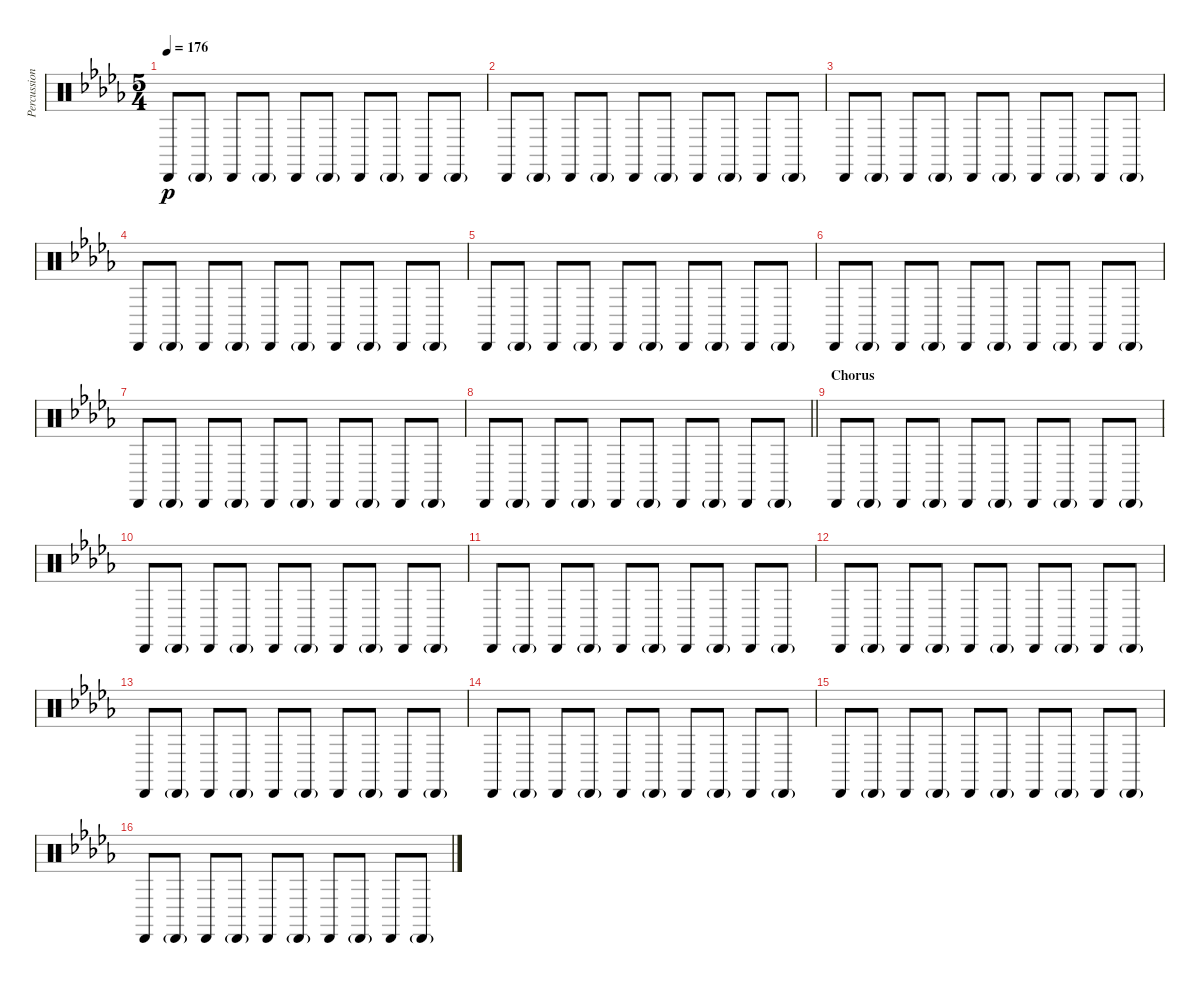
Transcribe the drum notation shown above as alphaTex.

\track ("Percussion" "Percussion") {instrument percussion}
\staff {score}
\articulation defaults
\ts (5 4)
\tempo 176
\clef neutral
\ks db "Cabasa (hit)".8{dy p} "Cabasa (hit)"{g}.8 "Cabasa (hit)".8 "Cabasa (hit)"{g}.8 "Cabasa (hit)".8 "Cabasa (hit)"{g}.8 "Cabasa (hit)".8 "Cabasa (hit)"{g}.8 "Cabasa (hit)".8 "Cabasa (hit)"{g}.8
|
"Cabasa (hit)".8 "Cabasa (hit)"{g}.8 "Cabasa (hit)".8 "Cabasa (hit)"{g}.8 "Cabasa (hit)".8 "Cabasa (hit)"{g}.8 "Cabasa (hit)".8 "Cabasa (hit)"{g}.8 "Cabasa (hit)".8 "Cabasa (hit)"{g}.8 |
"Cabasa (hit)".8 "Cabasa (hit)"{g}.8 "Cabasa (hit)".8 "Cabasa (hit)"{g}.8 "Cabasa (hit)".8 "Cabasa (hit)"{g}.8 "Cabasa (hit)".8 "Cabasa (hit)"{g}.8 "Cabasa (hit)".8 "Cabasa (hit)"{g}.8 |
"Cabasa (hit)".8 "Cabasa (hit)"{g}.8 "Cabasa (hit)".8 "Cabasa (hit)"{g}.8 "Cabasa (hit)".8 "Cabasa (hit)"{g}.8 "Cabasa (hit)".8 "Cabasa (hit)"{g}.8 "Cabasa (hit)".8 "Cabasa (hit)"{g}.8 |
"Cabasa (hit)".8 "Cabasa (hit)"{g}.8 "Cabasa (hit)".8 "Cabasa (hit)"{g}.8 "Cabasa (hit)".8 "Cabasa (hit)"{g}.8 "Cabasa (hit)".8 "Cabasa (hit)"{g}.8 "Cabasa (hit)".8 "Cabasa (hit)"{g}.8 |
"Cabasa (hit)".8 "Cabasa (hit)"{g}.8 "Cabasa (hit)".8 "Cabasa (hit)"{g}.8 "Cabasa (hit)".8 "Cabasa (hit)"{g}.8 "Cabasa (hit)".8 "Cabasa (hit)"{g}.8 "Cabasa (hit)".8 "Cabasa (hit)"{g}.8 |
"Cabasa (hit)".8 "Cabasa (hit)"{g}.8 "Cabasa (hit)".8 "Cabasa (hit)"{g}.8 "Cabasa (hit)".8 "Cabasa (hit)"{g}.8 "Cabasa (hit)".8 "Cabasa (hit)"{g}.8 "Cabasa (hit)".8 "Cabasa (hit)"{g}.8 |
\barLineRight lightlight "Cabasa (hit)".8 "Cabasa (hit)"{g}.8 "Cabasa (hit)".8 "Cabasa (hit)"{g}.8 "Cabasa (hit)".8 "Cabasa (hit)"{g}.8 "Cabasa (hit)".8 "Cabasa (hit)"{g}.8 "Cabasa (hit)".8 "Cabasa (hit)"{g}.8
|
\section ("" "Chorus")
"Cabasa (hit)".8 "Cabasa (hit)"{g}.8 "Cabasa (hit)".8 "Cabasa (hit)"{g}.8 "Cabasa (hit)".8 "Cabasa (hit)"{g}.8 "Cabasa (hit)".8 "Cabasa (hit)"{g}.8 "Cabasa (hit)".8 "Cabasa (hit)"{g}.8 |
"Cabasa (hit)".8 "Cabasa (hit)"{g}.8 "Cabasa (hit)".8 "Cabasa (hit)"{g}.8 "Cabasa (hit)".8 "Cabasa (hit)"{g}.8 "Cabasa (hit)".8 "Cabasa (hit)"{g}.8 "Cabasa (hit)".8 "Cabasa (hit)"{g}.8 |
"Cabasa (hit)".8 "Cabasa (hit)"{g}.8 "Cabasa (hit)".8 "Cabasa (hit)"{g}.8 "Cabasa (hit)".8 "Cabasa (hit)"{g}.8 "Cabasa (hit)".8 "Cabasa (hit)"{g}.8 "Cabasa (hit)".8 "Cabasa (hit)"{g}.8 |
"Cabasa (hit)".8 "Cabasa (hit)"{g}.8 "Cabasa (hit)".8 "Cabasa (hit)"{g}.8 "Cabasa (hit)".8 "Cabasa (hit)"{g}.8 "Cabasa (hit)".8 "Cabasa (hit)"{g}.8 "Cabasa (hit)".8 "Cabasa (hit)"{g}.8 |
"Cabasa (hit)".8 "Cabasa (hit)"{g}.8 "Cabasa (hit)".8 "Cabasa (hit)"{g}.8 "Cabasa (hit)".8 "Cabasa (hit)"{g}.8 "Cabasa (hit)".8 "Cabasa (hit)"{g}.8 "Cabasa (hit)".8 "Cabasa (hit)"{g}.8 |
"Cabasa (hit)".8 "Cabasa (hit)"{g}.8 "Cabasa (hit)".8 "Cabasa (hit)"{g}.8 "Cabasa (hit)".8 "Cabasa (hit)"{g}.8 "Cabasa (hit)".8 "Cabasa (hit)"{g}.8 "Cabasa (hit)".8 "Cabasa (hit)"{g}.8 |
"Cabasa (hit)".8 "Cabasa (hit)"{g}.8 "Cabasa (hit)".8 "Cabasa (hit)"{g}.8 "Cabasa (hit)".8 "Cabasa (hit)"{g}.8 "Cabasa (hit)".8 "Cabasa (hit)"{g}.8 "Cabasa (hit)".8 "Cabasa (hit)"{g}.8 |
"Cabasa (hit)".8 "Cabasa (hit)"{g}.8 "Cabasa (hit)".8 "Cabasa (hit)"{g}.8 "Cabasa (hit)".8 "Cabasa (hit)"{g}.8 "Cabasa (hit)".8 "Cabasa (hit)"{g}.8 "Cabasa (hit)".8 "Cabasa (hit)"{g}.8
